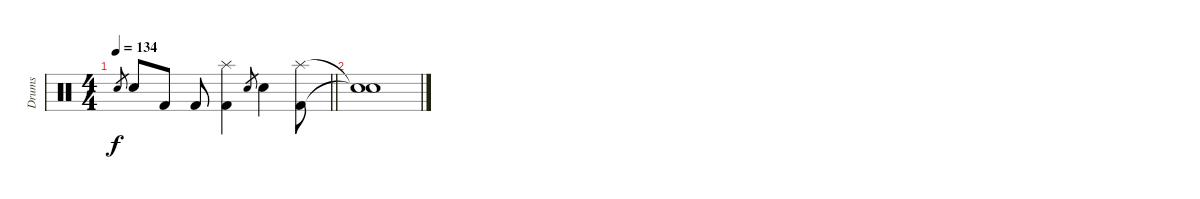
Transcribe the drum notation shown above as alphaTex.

\track ("Drums" "Drums") {instrument percussion}
\staff {score}
\articulation defaults
\ts (4 4)
\tempo 134
\clef neutral
\barLineRight lightlight
\ks c "Electric Snare (hit)".8{gr dy f} "Electric Snare (hit)".8 "Kick (hit) 2".8 "Kick (hit) 2".8
("Splash (hit)" "Kick (hit) 2").4 "Electric Snare (hit)".8{gr} "Electric Snare (hit)".4 ("Splash (hit)" "Kick (hit) 2").8 |
("Snare (hit)"{t} "Snare (hit)"{t}).1
